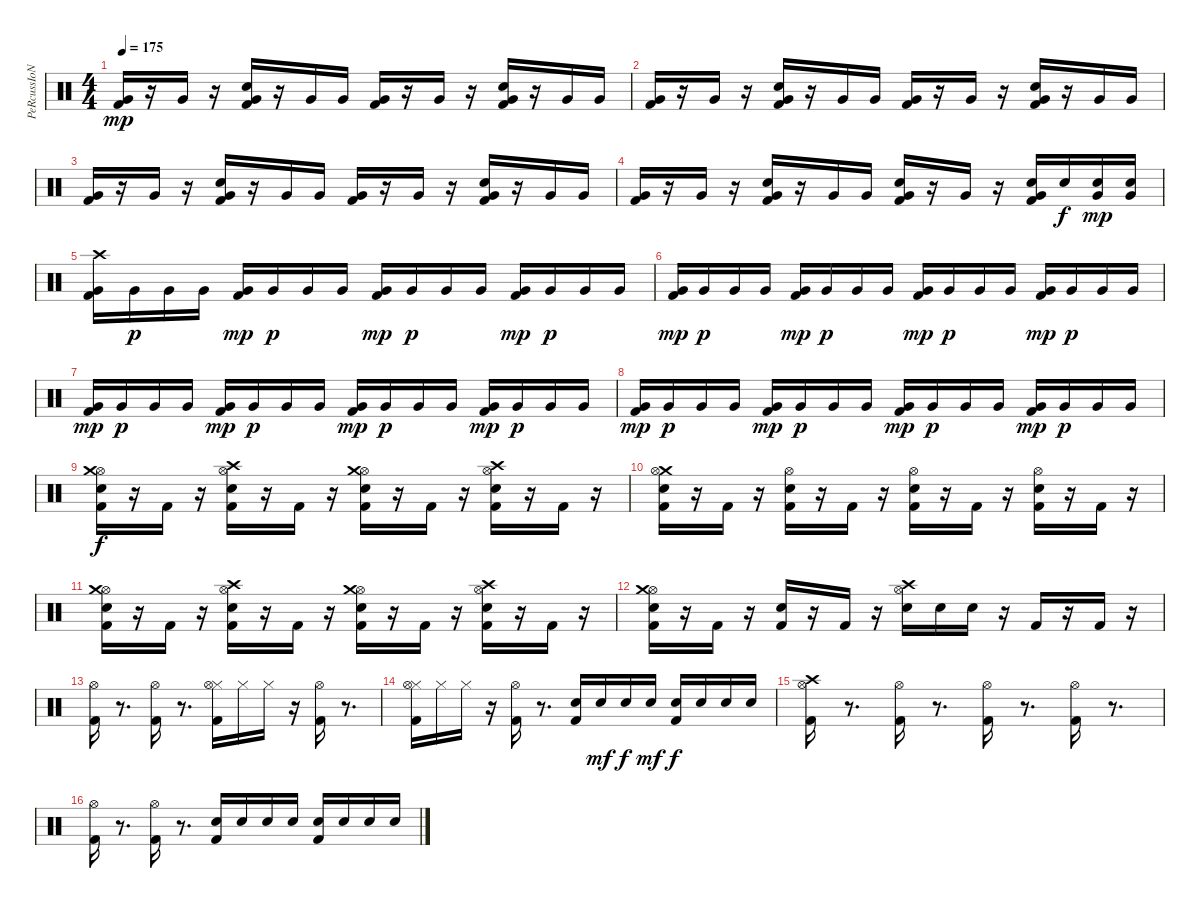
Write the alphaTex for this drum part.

\track ("PeRcussIoNs" "PeRcussIoN") {instrument percussion}
\staff {score}
\articulation defaults
\ts (4 4)
\tempo 175
\clef neutral
\ks c
("Kick (hit) 2" "Very Low Tom (hit)").16{dy mp} r.16 "Very Low Tom (hit)".16 r.16 ("Electric Snare (hit)" "Kick (hit) 2" "Very Low Tom (hit)").16 r.16 "Very Low Tom (hit)".16 "Very Low Tom (hit)".16 ("Kick (hit) 2" "Very Low Tom (hit)").16 r.16 "Very Low Tom (hit)".16 r.16 ("Electric Snare (hit)" "Kick (hit) 2" "Very Low Tom (hit)").16 r.16 "Very Low Tom (hit)".16 "Very Low Tom (hit)".16 |
("Kick (hit) 2" "Very Low Tom (hit)").16 r.16 "Very Low Tom (hit)".16 r.16 ("Electric Snare (hit)" "Kick (hit) 2" "Very Low Tom (hit)").16 r.16 "Very Low Tom (hit)".16 "Very Low Tom (hit)".16 ("Kick (hit) 2" "Very Low Tom (hit)").16 r.16 "Very Low Tom (hit)".16 r.16 ("Electric Snare (hit)" "Kick (hit) 2" "Very Low Tom (hit)").16 r.16 "Very Low Tom (hit)".16 "Very Low Tom (hit)".16 |
("Kick (hit) 2" "Very Low Tom (hit)").16 r.16 "Very Low Tom (hit)".16 r.16 ("Electric Snare (hit)" "Kick (hit) 2" "Very Low Tom (hit)").16 r.16 "Very Low Tom (hit)".16 "Very Low Tom (hit)".16 ("Kick (hit) 2" "Very Low Tom (hit)").16 r.16 "Very Low Tom (hit)".16 r.16 ("Electric Snare (hit)" "Kick (hit) 2" "Very Low Tom (hit)").16 r.16 "Very Low Tom (hit)".16 "Very Low Tom (hit)".16 |
("Kick (hit) 2" "Very Low Tom (hit)").16 r.16 "Very Low Tom (hit)".16 r.16 ("Electric Snare (hit)" "Kick (hit) 2" "Very Low Tom (hit)").16 r.16 "Very Low Tom (hit)".16 "Very Low Tom (hit)".16 ("Kick (hit) 2" "Electric Snare (hit)" "Very Low Tom (hit)").16 r.16 "Very Low Tom (hit)".16 r.16 ("Electric Snare (hit)" "Kick (hit) 2" "Very Low Tom (hit)").16 "Electric Snare (hit)".16{dy f} ("Electric Snare (hit)" "Very Low Tom (hit)").16{dy mp} ("Electric Snare (hit)" "Very Low Tom (hit)").16 |
("Crash high (hit)" "Very Low Tom (hit)" "Kick (hit) 2").16 "Very Low Tom (hit)".16{dy p} "Very Low Tom (hit)".16 "Very Low Tom (hit)".16 ("Very Low Tom (hit)" "Kick (hit) 2").16{dy mp} "Very Low Tom (hit)".16{dy p} "Very Low Tom (hit)".16 "Very Low Tom (hit)".16 ("Very Low Tom (hit)" "Kick (hit) 2").16{dy mp} "Very Low Tom (hit)".16{dy p} "Very Low Tom (hit)".16 "Very Low Tom (hit)".16 ("Very Low Tom (hit)" "Kick (hit) 2").16{dy mp} "Very Low Tom (hit)".16{dy p} "Very Low Tom (hit)".16 "Very Low Tom (hit)".16 |
("Very Low Tom (hit)" "Kick (hit) 2").16{dy mp} "Very Low Tom (hit)".16{dy p} "Very Low Tom (hit)".16 "Very Low Tom (hit)".16 ("Very Low Tom (hit)" "Kick (hit) 2").16{dy mp} "Very Low Tom (hit)".16{dy p} "Very Low Tom (hit)".16 "Very Low Tom (hit)".16 ("Very Low Tom (hit)" "Kick (hit) 2").16{dy mp} "Very Low Tom (hit)".16{dy p} "Very Low Tom (hit)".16 "Very Low Tom (hit)".16 ("Very Low Tom (hit)" "Kick (hit) 2").16{dy mp} "Very Low Tom (hit)".16{dy p} "Very Low Tom (hit)".16 "Very Low Tom (hit)".16 |
("Very Low Tom (hit)" "Kick (hit) 2").16{dy mp} "Very Low Tom (hit)".16{dy p} "Very Low Tom (hit)".16 "Very Low Tom (hit)".16 ("Very Low Tom (hit)" "Kick (hit) 2").16{dy mp} "Very Low Tom (hit)".16{dy p} "Very Low Tom (hit)".16 "Very Low Tom (hit)".16 ("Very Low Tom (hit)" "Kick (hit) 2").16{dy mp} "Very Low Tom (hit)".16{dy p} "Very Low Tom (hit)".16 "Very Low Tom (hit)".16 ("Very Low Tom (hit)" "Kick (hit) 2").16{dy mp} "Very Low Tom (hit)".16{dy p} "Very Low Tom (hit)".16 "Very Low Tom (hit)".16 |
("Very Low Tom (hit)" "Kick (hit) 2").16{dy mp} "Very Low Tom (hit)".16{dy p} "Very Low Tom (hit)".16 "Very Low Tom (hit)".16 ("Very Low Tom (hit)" "Kick (hit) 2").16{dy mp} "Very Low Tom (hit)".16{dy p} "Very Low Tom (hit)".16 "Very Low Tom (hit)".16 ("Very Low Tom (hit)" "Kick (hit) 2").16{dy mp} "Very Low Tom (hit)".16{dy p} "Very Low Tom (hit)".16 "Very Low Tom (hit)".16 ("Very Low Tom (hit)" "Kick (hit) 2").16{dy mp} "Very Low Tom (hit)".16{dy p} "Very Low Tom (hit)".16 "Very Low Tom (hit)".16 |
("Hi-Hat (open)" "Electric Snare (hit)" "Kick (hit) 2" "Crash medium (hit)").16{dy f} r.16 "Kick (hit) 2".16 r.16 ("Hi-Hat (open)" "Electric Snare (hit)" "Kick (hit) 2" "Crash high (hit)").16 r.16 "Kick (hit) 2".16 r.16 ("Hi-Hat (open)" "Electric Snare (hit)" "Kick (hit) 2" "Crash medium (hit)").16 r.16 "Kick (hit) 2".16 r.16 ("Hi-Hat (open)" "Electric Snare (hit)" "Kick (hit) 2" "Crash high (hit)").16 r.16 "Kick (hit) 2".16 r.16 |
("Crash medium (hit)" "Hi-Hat (open)" "Electric Snare (hit)" "Kick (hit) 2").16 r.16 "Kick (hit) 2".16 r.16 ("Hi-Hat (open)" "Electric Snare (hit)" "Kick (hit) 2").16 r.16 "Kick (hit) 2".16 r.16 ("Hi-Hat (open)" "Electric Snare (hit)" "Kick (hit) 2").16 r.16 "Kick (hit) 2".16 r.16 ("Hi-Hat (open)" "Electric Snare (hit)" "Kick (hit) 2").16 r.16 "Kick (hit) 2".16 r.16 |
("Hi-Hat (open)" "Electric Snare (hit)" "Kick (hit) 2" "Crash medium (hit)").16 r.16 "Kick (hit) 2".16 r.16 ("Hi-Hat (open)" "Electric Snare (hit)" "Kick (hit) 2" "Crash high (hit)").16 r.16 "Kick (hit) 2".16 r.16 ("Hi-Hat (open)" "Electric Snare (hit)" "Kick (hit) 2" "Crash medium (hit)").16 r.16 "Kick (hit) 2".16 r.16 ("Hi-Hat (open)" "Electric Snare (hit)" "Kick (hit) 2" "Crash high (hit)").16 r.16 "Kick (hit) 2".16 r.16 |
("Hi-Hat (open)" "Crash medium (hit)" "Electric Snare (hit)" "Kick (hit) 2").16 r.16 "Kick (hit) 2".16 r.16 ("Electric Snare (hit)" "Kick (hit) 2").16 r.16 "Kick (hit) 2".16 r.16 ("Crash high (hit)" "Hi-Hat (open)" "Electric Snare (hit)").16 "Electric Snare (hit)".16 "Electric Snare (hit)".16 r.16 "Kick (hit) 2".16 r.16 "Kick (hit) 2".16 r.16 |
("Hi-Hat (open)" "Kick (hit) 2").16 r.8{d} ("Hi-Hat (open)" "Kick (hit) 2").16 r.8{d} ("Hi-Hat (closed)" "Hi-Hat (open)" "Kick (hit) 2").16 "Hi-Hat (closed)".16 "Hi-Hat (closed)".16 r.16 ("Hi-Hat (open)" "Kick (hit) 2").16 r.8{d} |
("Hi-Hat (closed)" "Kick (hit) 2" "Hi-Hat (open)").16 "Hi-Hat (closed)".16 "Hi-Hat (closed)".16 r.16 ("Kick (hit) 2" "Hi-Hat (open)").16 r.8{d} ("Kick (hit) 2" "Electric Snare (hit)").16 "Electric Snare (hit)".16{dy mf} "Electric Snare (hit)".16{dy f} "Electric Snare (hit)".16{dy mf} ("Kick (hit) 2" "Electric Snare (hit)").16{dy f} "Electric Snare (hit)".16 "Electric Snare (hit)".16 "Electric Snare (hit)".16 |
("Hi-Hat (open)" "Kick (hit) 2" "Crash high (hit)").16 r.8{d} ("Kick (hit) 2" "Hi-Hat (open)").16 r.8{d} ("Kick (hit) 2" "Hi-Hat (open)").16 r.8{d} ("Kick (hit) 2" "Hi-Hat (open)").16 r.8{d} |
("Kick (hit) 2" "Hi-Hat (open)").16 r.8{d} ("Kick (hit) 2" "Hi-Hat (open)").16 r.8{d} ("Electric Snare (hit)" "Kick (hit) 2").16 "Electric Snare (hit)".16 "Electric Snare (hit)".16 "Electric Snare (hit)".16 ("Electric Snare (hit)" "Kick (hit) 2").16 "Electric Snare (hit)".16 "Electric Snare (hit)".16 "Electric Snare (hit)".16
